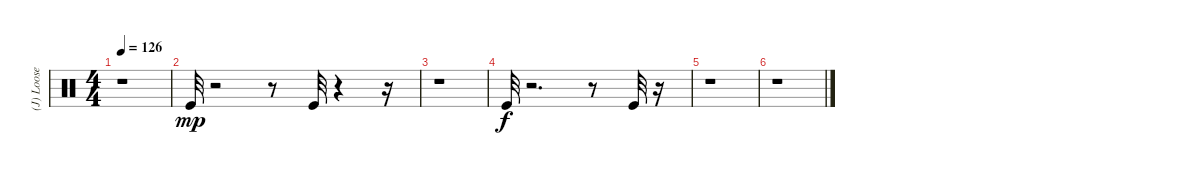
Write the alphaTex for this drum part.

\track ("(J) Loose Kick" "(J) Loose ") {instrument percussion}
\staff {score}
\articulation defaults
\ts (4 4)
\tempo 126
\clef neutral
\ks c
r.1{dy f} |
"Kick (hit)".32{dy mp} r.2 r.8 "Kick (hit)".32 r.4 r.16 |
r.1 |
"Kick (hit)".32{dy f} r.2{d} r.8 "Kick (hit)".32 r.16 |
r.1 |
r.1
